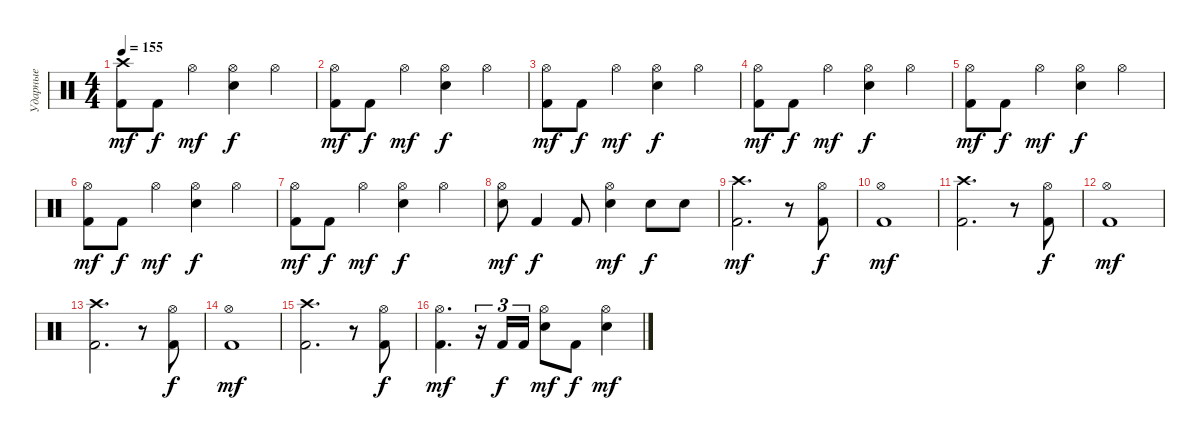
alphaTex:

\track ("Ударные" "Ударные") {instrument percussion}
\staff {score}
\articulation defaults
\ts (4 4)
\tempo 155
\clef neutral
\ks c
("Kick (hit) 2" "Crash high (hit)").8{dy mf} "Kick (hit) 2".8{dy f} "Hi-Hat (open)".4{dy mf} ("Snare (hit) 2" "Hi-Hat (open)").4{dy f} "Hi-Hat (open)".4 |
("Kick (hit) 2" "Hi-Hat (open)").8{dy mf} "Kick (hit) 2".8{dy f} "Hi-Hat (open)".4{dy mf} ("Snare (hit) 2" "Hi-Hat (open)").4{dy f} "Hi-Hat (open)".4 |
("Kick (hit) 2" "Hi-Hat (open)").8{dy mf} "Kick (hit) 2".8{dy f} "Hi-Hat (open)".4{dy mf} ("Snare (hit) 2" "Hi-Hat (open)").4{dy f} "Hi-Hat (open)".4 |
("Kick (hit) 2" "Hi-Hat (open)").8{dy mf} "Kick (hit) 2".8{dy f} "Hi-Hat (open)".4{dy mf} ("Snare (hit) 2" "Hi-Hat (open)").4{dy f} "Hi-Hat (open)".4 |
("Kick (hit) 2" "Hi-Hat (open)").8{dy mf} "Kick (hit) 2".8{dy f} "Hi-Hat (open)".4{dy mf} ("Snare (hit) 2" "Hi-Hat (open)").4{dy f} "Hi-Hat (open)".4 |
("Kick (hit) 2" "Hi-Hat (open)").8{dy mf} "Kick (hit) 2".8{dy f} "Hi-Hat (open)".4{dy mf} ("Snare (hit) 2" "Hi-Hat (open)").4{dy f} "Hi-Hat (open)".4 |
("Kick (hit) 2" "Hi-Hat (open)").8{dy mf} "Kick (hit) 2".8{dy f} "Hi-Hat (open)".4{dy mf} ("Snare (hit) 2" "Hi-Hat (open)").4{dy f} "Hi-Hat (open)".4 |
("Snare (hit) 2" "Hi-Hat (open)").8{dy mf} "Kick (hit) 2".4{dy f} "Kick (hit) 2".8 ("Snare (hit) 2" "Hi-Hat (open)").4{dy mf} "Snare (hit) 2".8{dy f} "Snare (hit) 2".8 |
("Kick (hit) 2" "Crash high (hit)").2{d dy mf} r.8 ("Kick (hit) 2" "Hi-Hat (open)").8{dy f} |
("Kick (hit) 2" "Hi-Hat (open)").1{dy mf} |
("Kick (hit) 2" "Crash high (hit)").2{d} r.8 ("Kick (hit) 2" "Hi-Hat (open)").8{dy f} |
("Kick (hit) 2" "Hi-Hat (open)").1{dy mf} |
("Kick (hit) 2" "Crash high (hit)").2{d} r.8 ("Kick (hit) 2" "Hi-Hat (open)").8{dy f} |
("Kick (hit) 2" "Hi-Hat (open)").1{dy mf} |
("Kick (hit) 2" "Crash high (hit)").2{d} r.8 ("Kick (hit) 2" "Hi-Hat (open)").8{dy f} |
("Kick (hit) 2" "Hi-Hat (open)").4{d dy mf} r.16{tu (3 2)} "Kick (hit) 2".16{tu (3 2) dy f} "Kick (hit) 2".16{tu (3 2)} ("Snare (hit) 2" "Hi-Hat (open)").8{dy mf} "Kick (hit) 2".8{dy f} ("Snare (hit) 2" "Hi-Hat (open)").4{dy mf}
